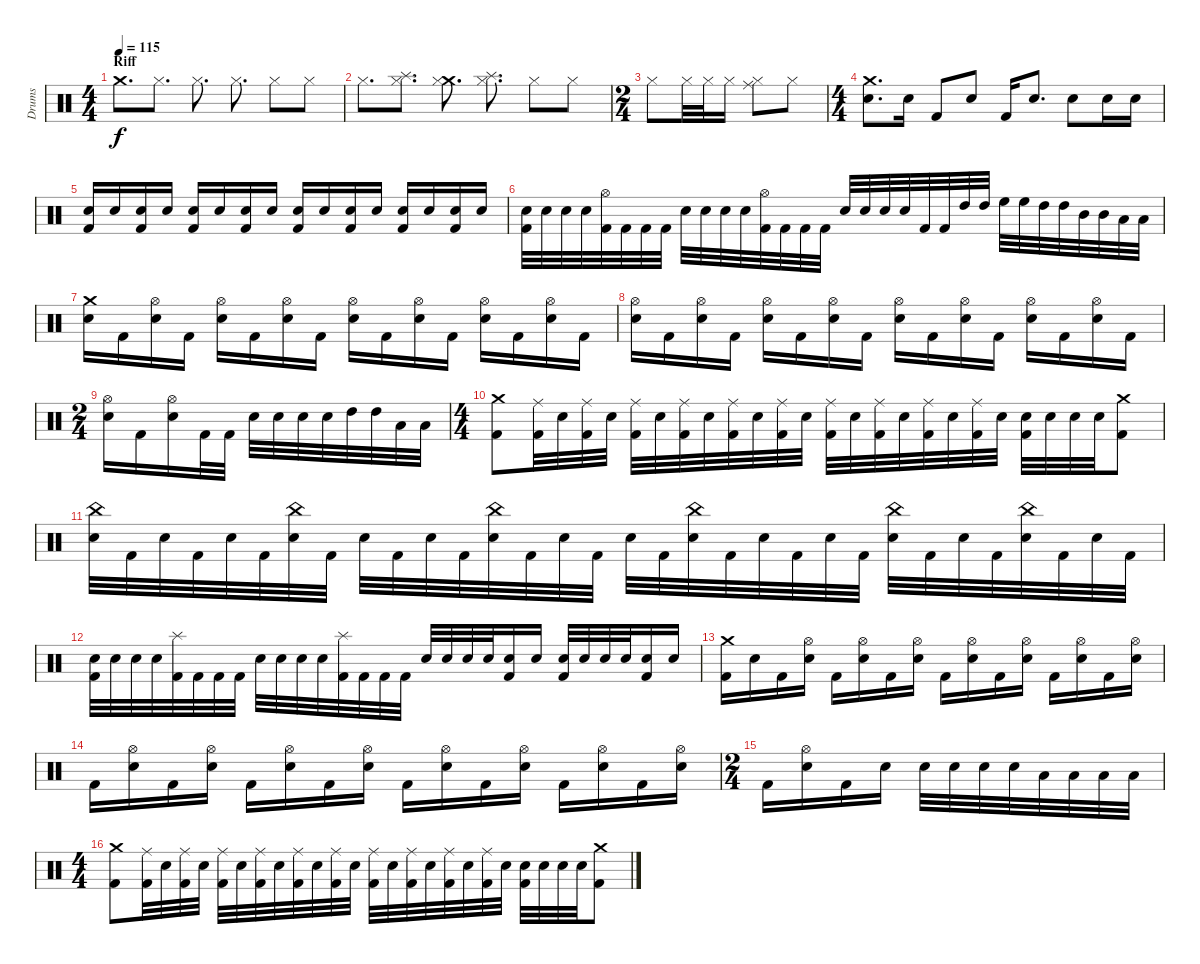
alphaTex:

\track ("Drums" "Drums") {instrument percussion}
\staff {score}
\articulation defaults
\ts (4 4)
\section ("" "Riff")
\tempo 115
\clef neutral
\ks c "Crash medium (hit)".8{d dy f} "Hi-Hat (closed)".8{d} "Hi-Hat (closed)".8{d} "Hi-Hat (closed)".8{d} "Hi-Hat (closed)".8 "Hi-Hat (closed)".8
|
"Hi-Hat (closed)".8{d} ("Splash (hit)" "Hi-Hat (closed)").8{d} ("Crash medium (hit)" "Hi-Hat (closed)").8{d} ("Splash (hit)" "Hi-Hat (closed)").8{d} "Hi-Hat (closed)".8 "Hi-Hat (closed)".8 |
\ts (2 4)
"Hi-Hat (closed)".8 "Hi-Hat (closed)".32 "Hi-Hat (closed)".32 "Hi-Hat (closed)".16 ("Ride (middle)" "Hi-Hat (closed)").8 "Hi-Hat (closed)".8 |
\ts (4 4)
("Crash medium (hit)" "Snare (hit) 2").8{d} "Snare (hit) 2".16 "Kick (hit) 2".8 "Snare (hit) 2".8 "Kick (hit) 2".16 "Snare (hit) 2".8{d} "Snare (hit) 2".8 "Snare (hit) 2".16 "Snare (hit) 2".16 |
("Snare (hit) 2" "Kick (hit) 2").16 "Snare (hit) 2".16 ("Snare (hit) 2" "Kick (hit) 2").16 "Snare (hit) 2".16 ("Snare (hit) 2" "Kick (hit) 2").16 "Snare (hit) 2".16 ("Snare (hit) 2" "Kick (hit) 2").16 "Snare (hit) 2".16 ("Snare (hit) 2" "Kick (hit) 2").16 "Snare (hit) 2".16 ("Snare (hit) 2" "Kick (hit) 2").16 "Snare (hit) 2".16 ("Snare (hit) 2" "Kick (hit) 2").16 "Snare (hit) 2".16 ("Snare (hit) 2" "Kick (hit) 2").16 "Snare (hit) 2".16 |
("Snare (hit) 2" "Kick (hit) 2").32 "Snare (hit) 2".32 "Snare (hit) 2".32 "Snare (hit) 2".32 ("Hi-Hat (open)" "Kick (hit) 2").32 "Kick (hit) 2".32 "Kick (hit) 2".32 "Kick (hit) 2".32 "Snare (hit) 2".32 "Snare (hit) 2".32 "Snare (hit) 2".32 "Snare (hit) 2".32 ("Hi-Hat (open)" "Kick (hit) 2").32 "Kick (hit) 2".32 "Kick (hit) 2".32 "Kick (hit) 2".32 "Snare (hit) 2".32 "Snare (hit) 2".32 "Snare (hit) 2".32 "Snare (hit) 2".32 "Kick (hit) 2".32 "Kick (hit) 2".32 "High Tom (hit)".32 "High Tom (hit)".32 "High Floor Tom (hit)".32 "High Floor Tom (hit)".32 "High Tom (hit)".32 "High Tom (hit)".32 "Mid Tom (hit)".32 "Mid Tom (hit)".32 "Low Tom (hit)".32 "Low Tom (hit)".32 |
("Crash medium (hit)" "Snare (hit) 2").16 "Kick (hit) 2".16 ("Hi-Hat (open)" "Snare (hit) 2").16 "Kick (hit) 2".16 ("Hi-Hat (open)" "Snare (hit) 2").16 "Kick (hit) 2".16 ("Hi-Hat (open)" "Snare (hit) 2").16 "Kick (hit) 2".16 ("Hi-Hat (open)" "Snare (hit) 2").16 "Kick (hit) 2".16 ("Hi-Hat (open)" "Snare (hit) 2").16 "Kick (hit) 2".16 ("Hi-Hat (open)" "Snare (hit) 2").16 "Kick (hit) 2".16 ("Hi-Hat (open)" "Snare (hit) 2").16 "Kick (hit) 2".16 |
("Hi-Hat (open)" "Snare (hit) 2").16 "Kick (hit) 2".16 ("Hi-Hat (open)" "Snare (hit) 2").16 "Kick (hit) 2".16 ("Hi-Hat (open)" "Snare (hit) 2").16 "Kick (hit) 2".16 ("Hi-Hat (open)" "Snare (hit) 2").16 "Kick (hit) 2".16 ("Hi-Hat (open)" "Snare (hit) 2").16 "Kick (hit) 2".16 ("Hi-Hat (open)" "Snare (hit) 2").16 "Kick (hit) 2".16 ("Hi-Hat (open)" "Snare (hit) 2").16 "Kick (hit) 2".16 ("Hi-Hat (open)" "Snare (hit) 2").16 "Kick (hit) 2".16 |
\ts (2 4)
("Hi-Hat (open)" "Snare (hit) 2").16 "Kick (hit) 2".16 ("Hi-Hat (open)" "Snare (hit) 2").16 "Kick (hit) 2".32 "Kick (hit) 2".32 "Snare (hit) 2".32 "Snare (hit) 2".32 "Snare (hit) 2".32 "Snare (hit) 2".32 "High Tom (hit)".32 "High Tom (hit)".32 "Low Tom (hit)".32 "Low Tom (hit)".32 |
\ts (4 4)
("Crash medium (hit)" "Kick (hit) 2").8 ("Ride (middle)" "Kick (hit) 2").32 "Snare (hit) 2".32 ("Ride (middle)" "Kick (hit) 2").32 "Snare (hit) 2".32 ("Ride (middle)" "Kick (hit) 2").32 "Snare (hit) 2".32 ("Ride (middle)" "Kick (hit) 2").32 "Snare (hit) 2".32 ("Ride (middle)" "Kick (hit) 2").32 "Snare (hit) 2".32 ("Ride (middle)" "Kick (hit) 2").32 "Snare (hit) 2".32 ("Ride (middle)" "Kick (hit) 2").32 "Snare (hit) 2".32 ("Ride (middle)" "Kick (hit) 2").32 "Snare (hit) 2".32 ("Ride (middle)" "Kick (hit) 2").32 "Snare (hit) 2".32 ("Ride (middle)" "Kick (hit) 2").32 "Snare (hit) 2".32 ("Snare (hit) 2" "Kick (hit) 2").32 "Snare (hit) 2".32 "Snare (hit) 2".32 "Snare (hit) 2".32 ("Crash medium (hit)" "Kick (hit) 2").8 |
("China (hit)" "Snare (hit) 2").32 "Kick (hit) 2".32 "Snare (hit) 2".32 "Kick (hit) 2".32 "Snare (hit) 2".32 "Kick (hit) 2".32 ("China (hit)" "Snare (hit) 2").32 "Kick (hit) 2".32 "Snare (hit) 2".32 "Kick (hit) 2".32 "Snare (hit) 2".32 "Kick (hit) 2".32 ("China (hit)" "Snare (hit) 2").32 "Kick (hit) 2".32 "Snare (hit) 2".32 "Kick (hit) 2".32 "Snare (hit) 2".32 "Kick (hit) 2".32 ("China (hit)" "Snare (hit) 2").32 "Kick (hit) 2".32 "Snare (hit) 2".32 "Kick (hit) 2".32 "Snare (hit) 2".32 "Kick (hit) 2".32 ("China (hit)" "Snare (hit) 2").32 "Kick (hit) 2".32 "Snare (hit) 2".32 "Kick (hit) 2".32 ("China (hit)" "Snare (hit) 2").32 "Kick (hit) 2".32 "Snare (hit) 2".32 "Kick (hit) 2".32 |
("Snare (hit) 2" "Kick (hit) 2").32 "Snare (hit) 2".32 "Snare (hit) 2".32 "Snare (hit) 2".32 ("Splash (hit)" "Kick (hit) 2").32 "Kick (hit) 2".32 "Kick (hit) 2".32 "Kick (hit) 2".32 "Snare (hit) 2".32 "Snare (hit) 2".32 "Snare (hit) 2".32 "Snare (hit) 2".32 ("Splash (hit)" "Kick (hit) 2").32 "Kick (hit) 2".32 "Kick (hit) 2".32 "Kick (hit) 2".32 "Snare (hit) 2".32 "Snare (hit) 2".32 "Snare (hit) 2".32 "Snare (hit) 2".32 ("Snare (hit) 2" "Kick (hit) 2").16 "Snare (hit) 2".16 ("Snare (hit) 2" "Kick (hit) 2").32 "Snare (hit) 2".32 "Snare (hit) 2".32 "Snare (hit) 2".32 ("Snare (hit) 2" "Kick (hit) 2").16 "Snare (hit) 2".16 |
("Crash medium (hit)" "Kick (hit) 2").16 "Snare (hit) 2".16 "Kick (hit) 2".16 ("Hi-Hat (open)" "Snare (hit) 2").16 "Kick (hit) 2".16 ("Hi-Hat (open)" "Snare (hit) 2").16 "Kick (hit) 2".16 ("Hi-Hat (open)" "Snare (hit) 2").16 "Kick (hit) 2".16 ("Hi-Hat (open)" "Snare (hit) 2").16 "Kick (hit) 2".16 ("Hi-Hat (open)" "Snare (hit) 2").16 "Kick (hit) 2".16 ("Hi-Hat (open)" "Snare (hit) 2").16 "Kick (hit) 2".16 ("Hi-Hat (open)" "Snare (hit) 2").16 |
"Kick (hit) 2".16 ("Hi-Hat (open)" "Snare (hit) 2").16 "Kick (hit) 2".16 ("Hi-Hat (open)" "Snare (hit) 2").16 "Kick (hit) 2".16 ("Hi-Hat (open)" "Snare (hit) 2").16 "Kick (hit) 2".16 ("Hi-Hat (open)" "Snare (hit) 2").16 "Kick (hit) 2".16 ("Hi-Hat (open)" "Snare (hit) 2").16 "Kick (hit) 2".16 ("Hi-Hat (open)" "Snare (hit) 2").16 "Kick (hit) 2".16 ("Hi-Hat (open)" "Snare (hit) 2").16 "Kick (hit) 2".16 ("Hi-Hat (open)" "Snare (hit) 2").16 |
\ts (2 4)
"Kick (hit) 2".16 ("Hi-Hat (open)" "Snare (hit) 2").16 "Kick (hit) 2".16 "Snare (hit) 2".16 "Snare (hit) 2".32 "Snare (hit) 2".32 "Snare (hit) 2".32 "Snare (hit) 2".32 "Low Tom (hit)".32 "Low Tom (hit)".32 "Low Tom (hit)".32 "Low Tom (hit)".32 |
\ts (4 4)
("Crash medium (hit)" "Kick (hit) 2").8 ("Ride (middle)" "Kick (hit) 2").32 "Snare (hit) 2".32 ("Ride (middle)" "Kick (hit) 2").32 "Snare (hit) 2".32 ("Ride (middle)" "Kick (hit) 2").32 "Snare (hit) 2".32 ("Ride (middle)" "Kick (hit) 2").32 "Snare (hit) 2".32 ("Ride (middle)" "Kick (hit) 2").32 "Snare (hit) 2".32 ("Ride (middle)" "Kick (hit) 2").32 "Snare (hit) 2".32 ("Ride (middle)" "Kick (hit) 2").32 "Snare (hit) 2".32 ("Ride (middle)" "Kick (hit) 2").32 "Snare (hit) 2".32 ("Ride (middle)" "Kick (hit) 2").32 "Snare (hit) 2".32 ("Ride (middle)" "Kick (hit) 2").32 "Snare (hit) 2".32 ("Snare (hit) 2" "Kick (hit) 2").32 "Snare (hit) 2".32 "Snare (hit) 2".32 "Snare (hit) 2".32 ("Crash medium (hit)" "Kick (hit) 2").8
